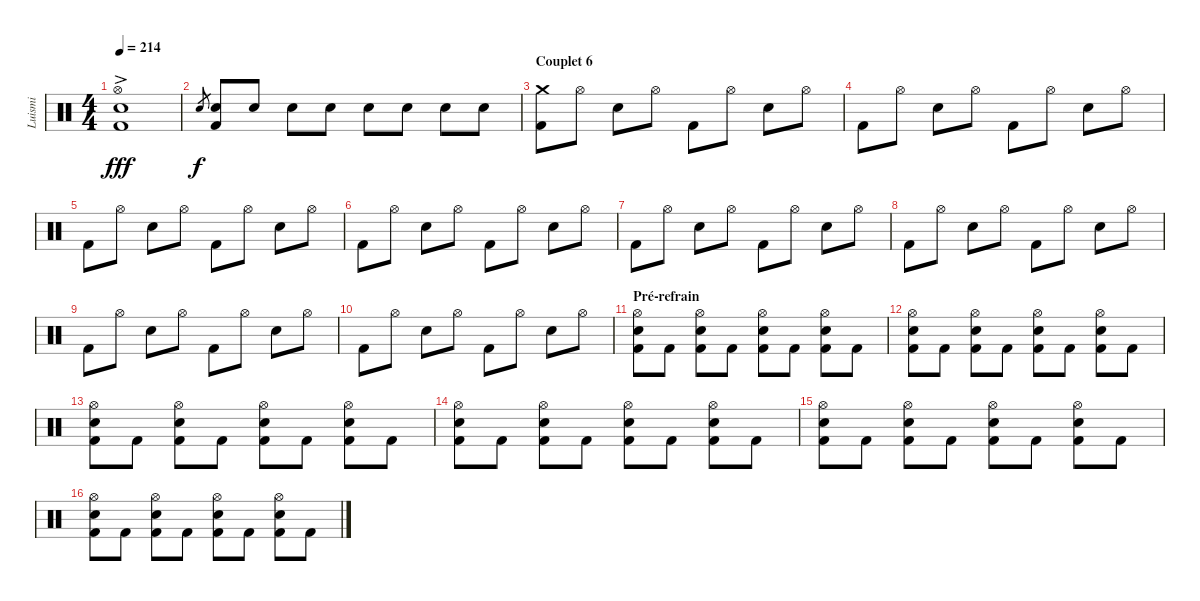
\track ("Luismi" "Luismi") {instrument percussion}
\staff {score}
\articulation defaults
\ts (4 4)
\tempo 214
\clef neutral
\ks c
("Hi-Hat (open)"{ac} "Snare (hit) 2" "Kick (hit) 2").1{dy fff} |
"Snare (hit) 2".8{gr dy f} ("Snare (hit) 2" "Kick (hit) 2").8 "Snare (hit) 2".8 "Snare (hit) 2".8 "Snare (hit) 2".8 "Snare (hit) 2".8 "Snare (hit) 2".8 "Snare (hit) 2".8 "Snare (hit) 2".8 |
\section ("" "Couplet 6")
("Crash medium (hit)" "Kick (hit) 2").8 "Hi-Hat (open)".8 "Snare (hit) 2".8 "Hi-Hat (open)".8 "Kick (hit) 2".8 "Hi-Hat (open)".8 "Snare (hit) 2".8 "Hi-Hat (open)".8 |
"Kick (hit) 2".8 "Hi-Hat (open)".8 "Snare (hit) 2".8 "Hi-Hat (open)".8 "Kick (hit) 2".8 "Hi-Hat (open)".8 "Snare (hit) 2".8 "Hi-Hat (open)".8 |
"Kick (hit) 2".8 "Hi-Hat (open)".8 "Snare (hit) 2".8 "Hi-Hat (open)".8 "Kick (hit) 2".8 "Hi-Hat (open)".8 "Snare (hit) 2".8 "Hi-Hat (open)".8 |
"Kick (hit) 2".8 "Hi-Hat (open)".8 "Snare (hit) 2".8 "Hi-Hat (open)".8 "Kick (hit) 2".8 "Hi-Hat (open)".8 "Snare (hit) 2".8 "Hi-Hat (open)".8 |
"Kick (hit) 2".8 "Hi-Hat (open)".8 "Snare (hit) 2".8 "Hi-Hat (open)".8 "Kick (hit) 2".8 "Hi-Hat (open)".8 "Snare (hit) 2".8 "Hi-Hat (open)".8 |
"Kick (hit) 2".8 "Hi-Hat (open)".8 "Snare (hit) 2".8 "Hi-Hat (open)".8 "Kick (hit) 2".8 "Hi-Hat (open)".8 "Snare (hit) 2".8 "Hi-Hat (open)".8 |
"Kick (hit) 2".8 "Hi-Hat (open)".8 "Snare (hit) 2".8 "Hi-Hat (open)".8 "Kick (hit) 2".8 "Hi-Hat (open)".8 "Snare (hit) 2".8 "Hi-Hat (open)".8 |
"Kick (hit) 2".8 "Hi-Hat (open)".8 "Snare (hit) 2".8 "Hi-Hat (open)".8 "Kick (hit) 2".8 "Hi-Hat (open)".8 "Snare (hit) 2".8 "Hi-Hat (open)".8 |
\section ("" "Pré-refrain")
("Hi-Hat (open)" "Snare (hit) 2" "Kick (hit) 2").8 "Kick (hit) 2".8 ("Hi-Hat (open)" "Snare (hit) 2" "Kick (hit) 2").8 "Kick (hit) 2".8 ("Hi-Hat (open)" "Snare (hit) 2" "Kick (hit) 2").8 "Kick (hit) 2".8 ("Hi-Hat (open)" "Snare (hit) 2" "Kick (hit) 2").8 "Kick (hit) 2".8 |
("Hi-Hat (open)" "Snare (hit) 2" "Kick (hit) 2").8 "Kick (hit) 2".8 ("Hi-Hat (open)" "Snare (hit) 2" "Kick (hit) 2").8 "Kick (hit) 2".8 ("Hi-Hat (open)" "Snare (hit) 2" "Kick (hit) 2").8 "Kick (hit) 2".8 ("Hi-Hat (open)" "Snare (hit) 2" "Kick (hit) 2").8 "Kick (hit) 2".8 |
("Hi-Hat (open)" "Snare (hit) 2" "Kick (hit) 2").8 "Kick (hit) 2".8 ("Hi-Hat (open)" "Snare (hit) 2" "Kick (hit) 2").8 "Kick (hit) 2".8 ("Hi-Hat (open)" "Snare (hit) 2" "Kick (hit) 2").8 "Kick (hit) 2".8 ("Hi-Hat (open)" "Snare (hit) 2" "Kick (hit) 2").8 "Kick (hit) 2".8 |
("Hi-Hat (open)" "Snare (hit) 2" "Kick (hit) 2").8 "Kick (hit) 2".8 ("Hi-Hat (open)" "Snare (hit) 2" "Kick (hit) 2").8 "Kick (hit) 2".8 ("Hi-Hat (open)" "Snare (hit) 2" "Kick (hit) 2").8 "Kick (hit) 2".8 ("Hi-Hat (open)" "Snare (hit) 2" "Kick (hit) 2").8 "Kick (hit) 2".8 |
("Hi-Hat (open)" "Snare (hit) 2" "Kick (hit) 2").8 "Kick (hit) 2".8 ("Hi-Hat (open)" "Snare (hit) 2" "Kick (hit) 2").8 "Kick (hit) 2".8 ("Hi-Hat (open)" "Snare (hit) 2" "Kick (hit) 2").8 "Kick (hit) 2".8 ("Hi-Hat (open)" "Snare (hit) 2" "Kick (hit) 2").8 "Kick (hit) 2".8 |
("Hi-Hat (open)" "Snare (hit) 2" "Kick (hit) 2").8 "Kick (hit) 2".8 ("Hi-Hat (open)" "Snare (hit) 2" "Kick (hit) 2").8 "Kick (hit) 2".8 ("Hi-Hat (open)" "Snare (hit) 2" "Kick (hit) 2").8 "Kick (hit) 2".8 ("Hi-Hat (open)" "Snare (hit) 2" "Kick (hit) 2").8 "Kick (hit) 2".8
